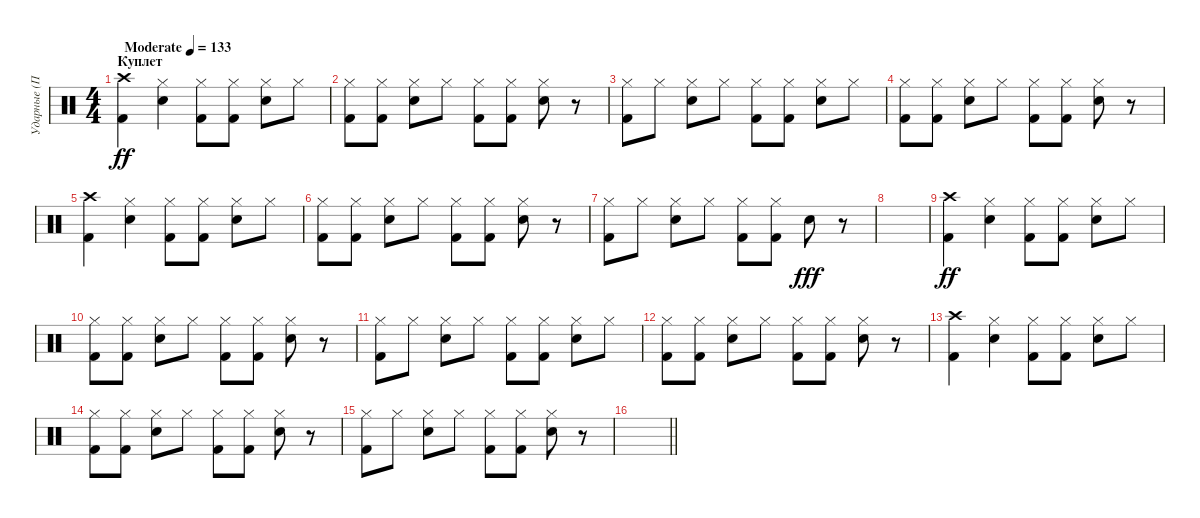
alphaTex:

\track ("Ударные (Пацан в Дредах)" "Ударные (П") {instrument percussion}
\staff {score}
\articulation defaults
\ts (4 4)
\section ("" "Куплет")
\tempo (133 "Moderate")
\clef neutral
\ks c
("Crash high (hit)" "Kick (hit) 2").4{dy ff} ("Hi-Hat (closed)" "Electric Snare (hit)").4 ("Hi-Hat (closed)" "Kick (hit) 2").8 ("Hi-Hat (closed)" "Kick (hit) 2").8 ("Hi-Hat (closed)" "Electric Snare (hit)").8 "Hi-Hat (closed)".8 |
("Hi-Hat (closed)" "Kick (hit) 2").8 ("Hi-Hat (closed)" "Kick (hit) 2").8 ("Hi-Hat (closed)" "Electric Snare (hit)").8 "Hi-Hat (closed)".8 ("Hi-Hat (closed)" "Kick (hit) 2").8 ("Hi-Hat (closed)" "Kick (hit) 2").8 ("Hi-Hat (closed)" "Electric Snare (hit)").8 r.8 |
("Hi-Hat (closed)" "Kick (hit) 2").8 "Hi-Hat (closed)".8 ("Hi-Hat (closed)" "Electric Snare (hit)").8 "Hi-Hat (closed)".8 ("Hi-Hat (closed)" "Kick (hit) 2").8 ("Hi-Hat (closed)" "Kick (hit) 2").8 ("Hi-Hat (closed)" "Electric Snare (hit)").8 "Hi-Hat (closed)".8 |
("Hi-Hat (closed)" "Kick (hit) 2").8 ("Hi-Hat (closed)" "Kick (hit) 2").8 ("Hi-Hat (closed)" "Electric Snare (hit)").8 "Hi-Hat (closed)".8 ("Hi-Hat (closed)" "Kick (hit) 2").8 ("Hi-Hat (closed)" "Kick (hit) 2").8 ("Hi-Hat (closed)" "Electric Snare (hit)").8 r.8 |
("Crash high (hit)" "Kick (hit) 2").4 ("Hi-Hat (closed)" "Electric Snare (hit)").4 ("Hi-Hat (closed)" "Kick (hit) 2").8 ("Hi-Hat (closed)" "Kick (hit) 2").8 ("Hi-Hat (closed)" "Electric Snare (hit)").8 "Hi-Hat (closed)".8 |
("Hi-Hat (closed)" "Kick (hit) 2").8 ("Hi-Hat (closed)" "Kick (hit) 2").8 ("Hi-Hat (closed)" "Electric Snare (hit)").8 "Hi-Hat (closed)".8 ("Hi-Hat (closed)" "Kick (hit) 2").8 ("Hi-Hat (closed)" "Kick (hit) 2").8 ("Hi-Hat (closed)" "Electric Snare (hit)").8 r.8 |
("Hi-Hat (closed)" "Kick (hit) 2").8 "Hi-Hat (closed)".8 ("Hi-Hat (closed)" "Electric Snare (hit)").8 "Hi-Hat (closed)".8 ("Hi-Hat (closed)" "Kick (hit) 2").8 ("Hi-Hat (closed)" "Kick (hit) 2").8 "Electric Snare (hit)".8{dy fff} r.8 |
|
("Crash high (hit)" "Kick (hit) 2").4{dy ff} ("Hi-Hat (closed)" "Electric Snare (hit)").4 ("Hi-Hat (closed)" "Kick (hit) 2").8 ("Hi-Hat (closed)" "Kick (hit) 2").8 ("Hi-Hat (closed)" "Electric Snare (hit)").8 "Hi-Hat (closed)".8 |
("Hi-Hat (closed)" "Kick (hit) 2").8 ("Hi-Hat (closed)" "Kick (hit) 2").8 ("Hi-Hat (closed)" "Electric Snare (hit)").8 "Hi-Hat (closed)".8 ("Hi-Hat (closed)" "Kick (hit) 2").8 ("Hi-Hat (closed)" "Kick (hit) 2").8 ("Hi-Hat (closed)" "Electric Snare (hit)").8 r.8 |
("Hi-Hat (closed)" "Kick (hit) 2").8 "Hi-Hat (closed)".8 ("Hi-Hat (closed)" "Electric Snare (hit)").8 "Hi-Hat (closed)".8 ("Hi-Hat (closed)" "Kick (hit) 2").8 ("Hi-Hat (closed)" "Kick (hit) 2").8 ("Hi-Hat (closed)" "Electric Snare (hit)").8 "Hi-Hat (closed)".8 |
("Hi-Hat (closed)" "Kick (hit) 2").8 ("Hi-Hat (closed)" "Kick (hit) 2").8 ("Hi-Hat (closed)" "Electric Snare (hit)").8 "Hi-Hat (closed)".8 ("Hi-Hat (closed)" "Kick (hit) 2").8 ("Hi-Hat (closed)" "Kick (hit) 2").8 ("Hi-Hat (closed)" "Electric Snare (hit)").8 r.8 |
("Crash high (hit)" "Kick (hit) 2").4 ("Hi-Hat (closed)" "Electric Snare (hit)").4 ("Hi-Hat (closed)" "Kick (hit) 2").8 ("Hi-Hat (closed)" "Kick (hit) 2").8 ("Hi-Hat (closed)" "Electric Snare (hit)").8 "Hi-Hat (closed)".8 |
("Hi-Hat (closed)" "Kick (hit) 2").8 ("Hi-Hat (closed)" "Kick (hit) 2").8 ("Hi-Hat (closed)" "Electric Snare (hit)").8 "Hi-Hat (closed)".8 ("Hi-Hat (closed)" "Kick (hit) 2").8 ("Hi-Hat (closed)" "Kick (hit) 2").8 ("Hi-Hat (closed)" "Electric Snare (hit)").8 r.8 |
("Hi-Hat (closed)" "Kick (hit) 2").8 "Hi-Hat (closed)".8 ("Hi-Hat (closed)" "Electric Snare (hit)").8 "Hi-Hat (closed)".8 ("Hi-Hat (closed)" "Kick (hit) 2").8 ("Hi-Hat (closed)" "Kick (hit) 2").8 ("Hi-Hat (closed)" "Electric Snare (hit)").8 r.8 |
\barLineRight lightlight
